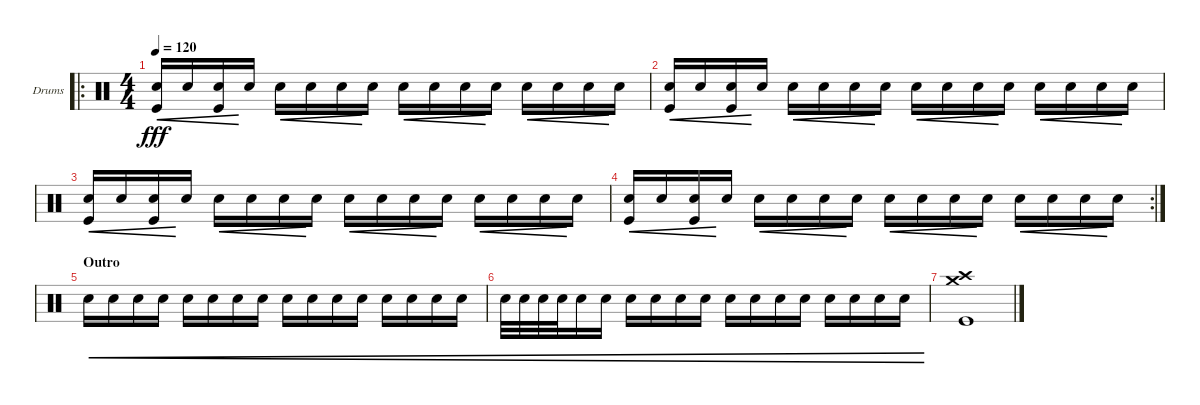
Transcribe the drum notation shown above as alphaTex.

\defaultSystemsLayout 4
\bracketExtendMode groupsimilarinstruments
\firstSystemTrackNameOrientation horizontal
\otherSystemsTrackNameOrientation horizontal
\track ("Jon Larsen" "Drums") {instrument percussion}
\staff {score}
\articulation defaults
\ro
\ts (4 4)
\tempo 120
\clef neutral
\scale
0.377778
\ks c
("Kick (hit)" "Snare (hit) 2").16{cre dy fff} "Snare (hit) 2".16{cre} ("Snare (hit) 2" "Kick (hit)").16{cre} "Snare (hit) 2".16 "Snare (hit) 2".16{cre} "Snare (hit) 2".16{cre} "Snare (hit) 2".16{cre} "Snare (hit) 2".16 "Snare (hit) 2".16{cre} "Snare (hit) 2".16{cre} "Snare (hit) 2".16{cre} "Snare (hit) 2".16 "Snare (hit) 2".16{cre} "Snare (hit) 2".16{cre} "Snare (hit) 2".16{cre} "Snare (hit) 2".16 |
\scale
0.321839 ("Snare (hit) 2" "Kick (hit)").16{cre} "Snare (hit) 2".16{cre} ("Snare (hit) 2" "Kick (hit)").16{cre} "Snare (hit) 2".16 "Snare (hit) 2".16{cre} "Snare (hit) 2".16{cre} "Snare (hit) 2".16{cre} "Snare (hit) 2".16 "Snare (hit) 2".16{cre} "Snare (hit) 2".16{cre} "Snare (hit) 2".16{cre} "Snare (hit) 2".16 "Snare (hit) 2".16{cre} "Snare (hit) 2".16{cre} "Snare (hit) 2".16{cre} "Snare (hit) 2".16 |
\scale
0.321839 ("Snare (hit) 2" "Kick (hit)").16{cre} "Snare (hit) 2".16{cre} ("Snare (hit) 2" "Kick (hit)").16{cre} "Snare (hit) 2".16 "Snare (hit) 2".16{cre} "Snare (hit) 2".16{cre} "Snare (hit) 2".16{cre} "Snare (hit) 2".16 "Snare (hit) 2".16{cre} "Snare (hit) 2".16{cre} "Snare (hit) 2".16{cre} "Snare (hit) 2".16 "Snare (hit) 2".16{cre} "Snare (hit) 2".16{cre} "Snare (hit) 2".16{cre} "Snare (hit) 2".16 |
\rc 2
\scale
0.356322 ("Snare (hit) 2" "Kick (hit)").16{cre} "Snare (hit) 2".16{cre} ("Snare (hit) 2" "Kick (hit)").16{cre} "Snare (hit) 2".16 "Snare (hit) 2".16{cre} "Snare (hit) 2".16{cre} "Snare (hit) 2".16{cre} "Snare (hit) 2".16 "Snare (hit) 2".16{cre} "Snare (hit) 2".16{cre} "Snare (hit) 2".16{cre} "Snare (hit) 2".16 "Snare (hit) 2".16{cre} "Snare (hit) 2".16{cre} "Snare (hit) 2".16{cre} "Snare (hit) 2".16 |
\section ("" "Outro")
"Snare (hit) 2".16{cre} "Snare (hit) 2".16{cre} "Snare (hit) 2".16{cre} "Snare (hit) 2".16{cre} "Snare (hit) 2".16{cre} "Snare (hit) 2".16{cre} "Snare (hit) 2".16{cre} "Snare (hit) 2".16{cre} "Snare (hit) 2".16{cre} "Snare (hit) 2".16{cre} "Snare (hit) 2".16{cre} "Snare (hit) 2".16{cre} "Snare (hit) 2".16{cre} "Snare (hit) 2".16{cre} "Snare (hit) 2".16{cre} "Snare (hit) 2".16{cre} |
"Snare (hit) 2".32{cre} "Snare (hit) 2".32{cre} "Snare (hit) 2".32{cre} "Snare (hit) 2".32{cre} "Snare (hit) 2".16{cre} "Snare (hit) 2".16{cre} "Snare (hit) 2".16{cre} "Snare (hit) 2".16{cre} "Snare (hit) 2".16{cre} "Snare (hit) 2".16{cre} "Snare (hit) 2".16{cre} "Snare (hit) 2".16{cre} "Snare (hit) 2".16{cre} "Snare (hit) 2".16{cre} "Snare (hit) 2".16{cre} "Snare (hit) 2".16{cre} "Snare (hit) 2".16{cre} "Snare (hit) 2".16{cre} |
("Kick (hit)" "Crash medium (hit)" "Crash high (hit)").1
